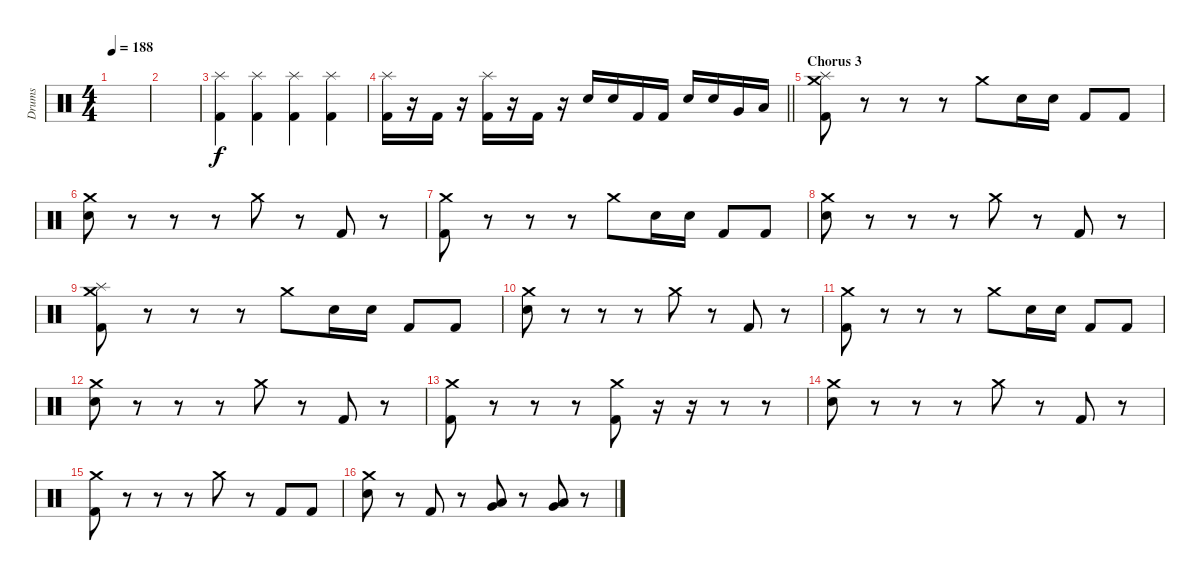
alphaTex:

\track ("Drums" "Drums") {instrument percussion}
\staff {score}
\articulation defaults
\ts (4 4)
\tempo 188
\clef neutral
\ks c
|
|
("Splash (hit)" "Kick (hit) 2").4 ("Splash (hit)" "Kick (hit) 2").4 ("Splash (hit)" "Kick (hit) 2").4 ("Splash (hit)" "Kick (hit) 2").4 |
\barLineRight lightlight
("Splash (hit)" "Kick (hit) 2").16 r.16 "Kick (hit) 2".16 r.16 ("Splash (hit)" "Kick (hit) 2").16 r.16 "Kick (hit) 2".16 r.16 "Snare (hit) 2".16 "Snare (hit) 2".16 "Kick (hit) 2".16 "Kick (hit) 2".16 "Snare (hit) 2".16 "Snare (hit) 2".16 "Very Low Tom (hit)".16 "Low Floor Tom (hit)".16 |
\section ("" "Chorus 3")
("Crash medium (hit)" "Splash (hit)" "Kick (hit) 2").8 r.8 r.8 r.8 "Crash medium (hit)".8 "Snare (hit) 2".16 "Snare (hit) 2".16 "Kick (hit) 2".8 "Kick (hit) 2".8 |
("Crash medium (hit)" "Snare (hit) 2").8 r.8 r.8 r.8 "Crash medium (hit)".8 r.8 "Kick (hit) 2".8 r.8 |
("Crash medium (hit)" "Kick (hit) 2").8 r.8 r.8 r.8 "Crash medium (hit)".8 "Snare (hit) 2".16 "Snare (hit) 2".16 "Kick (hit) 2".8 "Kick (hit) 2".8 |
("Crash medium (hit)" "Snare (hit) 2").8 r.8 r.8 r.8 "Crash medium (hit)".8 r.8 "Kick (hit) 2".8 r.8 |
("Crash medium (hit)" "Splash (hit)" "Kick (hit) 2").8 r.8 r.8 r.8 "Crash medium (hit)".8 "Snare (hit) 2".16 "Snare (hit) 2".16 "Kick (hit) 2".8 "Kick (hit) 2".8 |
("Crash medium (hit)" "Snare (hit) 2").8 r.8 r.8 r.8 "Crash medium (hit)".8 r.8 "Kick (hit) 2".8 r.8 |
("Crash medium (hit)" "Kick (hit) 2").8 r.8 r.8 r.8 "Crash medium (hit)".8 "Snare (hit) 2".16 "Snare (hit) 2".16 "Kick (hit) 2".8 "Kick (hit) 2".8 |
("Crash medium (hit)" "Snare (hit) 2").8 r.8 r.8 r.8 "Crash medium (hit)".8 r.8 "Kick (hit) 2".8 r.8 |
("Crash medium (hit)" "Kick (hit) 2").8 r.8 r.8 r.8 ("Crash medium (hit)" "Kick (hit) 2").8 r.16 r.16 r.8 r.8 |
("Crash medium (hit)" "Snare (hit) 2").8 r.8 r.8 r.8 "Crash medium (hit)".8 r.8 "Kick (hit) 2".8 r.8 |
("Crash medium (hit)" "Kick (hit) 2").8 r.8 r.8 r.8 "Crash medium (hit)".8 r.8 "Kick (hit) 2".8 "Kick (hit) 2".8 |
("Crash medium (hit)" "Snare (hit) 2").8 r.8 "Kick (hit) 2".8 r.8 ("Low Tom (hit)" "Very Low Tom (hit)").8 r.8 ("Very Low Tom (hit)" "Low Floor Tom (hit)").8 r.8
